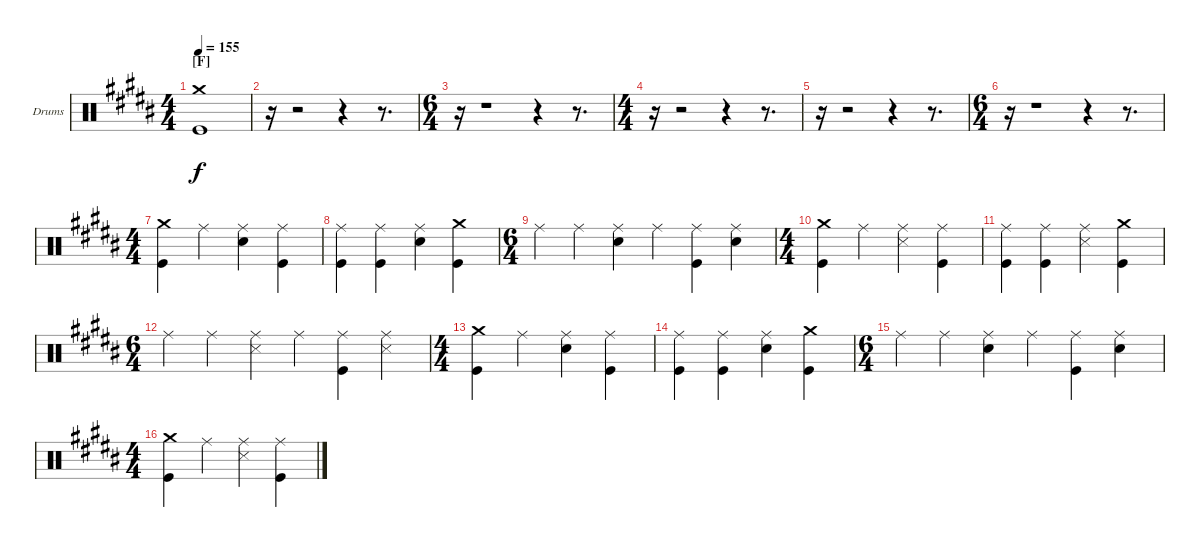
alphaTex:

\bracketExtendMode groupsimilarinstruments
\firstSystemTrackNameOrientation horizontal
\otherSystemsTrackNameOrientation horizontal
\track ("Drumkit" "Drums") {instrument percussion}
\staff {score}
\articulation defaults
\ts (4 4)
\section ("F" "")
\tempo 155
\clef neutral
\ks b
("Crash medium (hit)" "Kick (hit)").1{dy f} |
r.16 r.2 r.4 r.8{d} |
\ts (6 4)
r.16 r.1 r.4 r.8{d} |
\ts (4 4)
r.16 r.2 r.4 r.8{d} |
r.16 r.2 r.4 r.8{d} |
\ts (6 4)
r.16 r.1 r.4 r.8{d} |
\ts (4 4)
("Crash medium (hit)" "Kick (hit)").4 "Ride (middle)".4 ("Ride (middle)" "Snare (hit) 2").4 ("Ride (middle)" "Kick (hit)").4 |
("Ride (middle)" "Kick (hit)").4 ("Ride (middle)" "Kick (hit)").4 ("Ride (middle)" "Snare (hit) 2").4 ("Crash medium (hit)" "Kick (hit)").4 |
\ts (6 4)
"Ride (middle)".4 "Ride (middle)".4 ("Ride (middle)" "Snare (hit) 2").4 "Ride (middle)".4 ("Ride (middle)" "Kick (hit)").4 ("Ride (middle)" "Snare (hit) 2").4 |
\ts (4 4)
("Crash medium (hit)" "Kick (hit)").4 "Ride (middle)".4 ("Ride (middle)" "Snare (side stick) 3").4 ("Ride (middle)" "Kick (hit)").4 |
("Ride (middle)" "Kick (hit)").4 ("Ride (middle)" "Kick (hit)").4 ("Ride (middle)" "Snare (side stick) 3").4 ("Crash medium (hit)" "Kick (hit)").4 |
\ts (6 4)
"Ride (middle)".4 "Ride (middle)".4 ("Ride (middle)" "Snare (side stick) 3").4 "Ride (middle)".4 ("Ride (middle)" "Kick (hit)").4 ("Ride (middle)" "Snare (side stick) 3").4 |
\ts (4 4)
("Crash medium (hit)" "Kick (hit)").4 "Ride (middle)".4 ("Ride (middle)" "Snare (hit) 2").4 ("Ride (middle)" "Kick (hit)").4 |
("Ride (middle)" "Kick (hit)").4 ("Ride (middle)" "Kick (hit)").4 ("Ride (middle)" "Snare (hit) 2").4 ("Crash medium (hit)" "Kick (hit)").4 |
\ts (6 4)
"Ride (middle)".4 "Ride (middle)".4 ("Ride (middle)" "Snare (hit) 2").4 "Ride (middle)".4 ("Ride (middle)" "Kick (hit)").4 ("Ride (middle)" "Snare (hit) 2").4 |
\ts (4 4)
("Crash medium (hit)" "Kick (hit)").4 "Ride (middle)".4 ("Ride (middle)" "Snare (side stick) 3").4 ("Ride (middle)" "Kick (hit)").4
